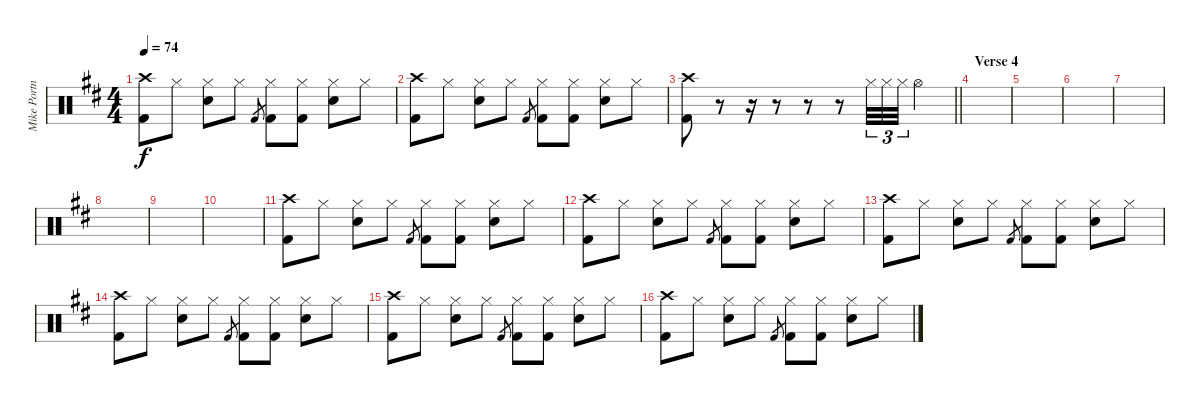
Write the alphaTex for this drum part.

\track ("Mike Portnoy" "Mike Portn") {instrument percussion}
\staff {score}
\articulation defaults
\ts (4 4)
\tempo 74
\clef neutral
\ks bminor
("Crash high (hit)" "Kick (hit) 2").8{dy f} "Hi-Hat (closed)".8 ("Hi-Hat (closed)" "Snare (hit) 2").8 "Hi-Hat (closed)".8 "Kick (hit) 2".8{gr} ("Hi-Hat (closed)" "Kick (hit) 2").8 ("Hi-Hat (closed)" "Kick (hit) 2").8 ("Hi-Hat (closed)" "Snare (hit) 2").8 "Hi-Hat (closed)".8 |
("Crash high (hit)" "Kick (hit) 2").8 "Hi-Hat (closed)".8 ("Hi-Hat (closed)" "Snare (hit) 2").8 "Hi-Hat (closed)".8 "Kick (hit) 2".8{gr} ("Hi-Hat (closed)" "Kick (hit) 2").8 ("Hi-Hat (closed)" "Kick (hit) 2").8 ("Hi-Hat (closed)" "Snare (hit) 2").8 "Hi-Hat (closed)".8 |
\barLineRight lightlight
("Crash high (hit)" "Kick (hit) 2").8 r.8 r.16 r.8 r.8 r.8 "Hi-Hat (closed)".32{tu (3 2)} "Hi-Hat (closed)".32{tu (3 2)} "Hi-Hat (closed)".32{tu (3 2)} "Hi-Hat (open)".4 |
\section ("" "Verse 4")
|
|
|
|
|
|
|
("Crash high (hit)" "Kick (hit) 2").8 "Hi-Hat (closed)".8 ("Hi-Hat (closed)" "Snare (hit) 2").8 "Hi-Hat (closed)".8 "Kick (hit) 2".8{gr} ("Hi-Hat (closed)" "Kick (hit) 2").8 ("Hi-Hat (closed)" "Kick (hit) 2").8 ("Hi-Hat (closed)" "Snare (hit) 2").8 "Hi-Hat (closed)".8 |
("Crash high (hit)" "Kick (hit) 2").8 "Hi-Hat (closed)".8 ("Hi-Hat (closed)" "Snare (hit) 2").8 "Hi-Hat (closed)".8 "Kick (hit) 2".8{gr} ("Hi-Hat (closed)" "Kick (hit) 2").8 ("Hi-Hat (closed)" "Kick (hit) 2").8 ("Hi-Hat (closed)" "Snare (hit) 2").8 "Hi-Hat (closed)".8 |
("Crash high (hit)" "Kick (hit) 2").8 "Hi-Hat (closed)".8 ("Hi-Hat (closed)" "Snare (hit) 2").8 "Hi-Hat (closed)".8 "Kick (hit) 2".8{gr} ("Hi-Hat (closed)" "Kick (hit) 2").8 ("Hi-Hat (closed)" "Kick (hit) 2").8 ("Hi-Hat (closed)" "Snare (hit) 2").8 "Hi-Hat (closed)".8 |
("Crash high (hit)" "Kick (hit) 2").8 "Hi-Hat (closed)".8 ("Hi-Hat (closed)" "Snare (hit) 2").8 "Hi-Hat (closed)".8 "Kick (hit) 2".8{gr} ("Hi-Hat (closed)" "Kick (hit) 2").8 ("Hi-Hat (closed)" "Kick (hit) 2").8 ("Hi-Hat (closed)" "Snare (hit) 2").8 "Hi-Hat (closed)".8 |
("Crash high (hit)" "Kick (hit) 2").8 "Hi-Hat (closed)".8 ("Hi-Hat (closed)" "Snare (hit) 2").8 "Hi-Hat (closed)".8 "Kick (hit) 2".8{gr} ("Hi-Hat (closed)" "Kick (hit) 2").8 ("Hi-Hat (closed)" "Kick (hit) 2").8 ("Hi-Hat (closed)" "Snare (hit) 2").8 "Hi-Hat (closed)".8 |
("Crash high (hit)" "Kick (hit) 2").8 "Hi-Hat (closed)".8 ("Hi-Hat (closed)" "Snare (hit) 2").8 "Hi-Hat (closed)".8 "Kick (hit) 2".8{gr} ("Hi-Hat (closed)" "Kick (hit) 2").8 ("Hi-Hat (closed)" "Kick (hit) 2").8 ("Hi-Hat (closed)" "Snare (hit) 2").8 "Hi-Hat (closed)".8
